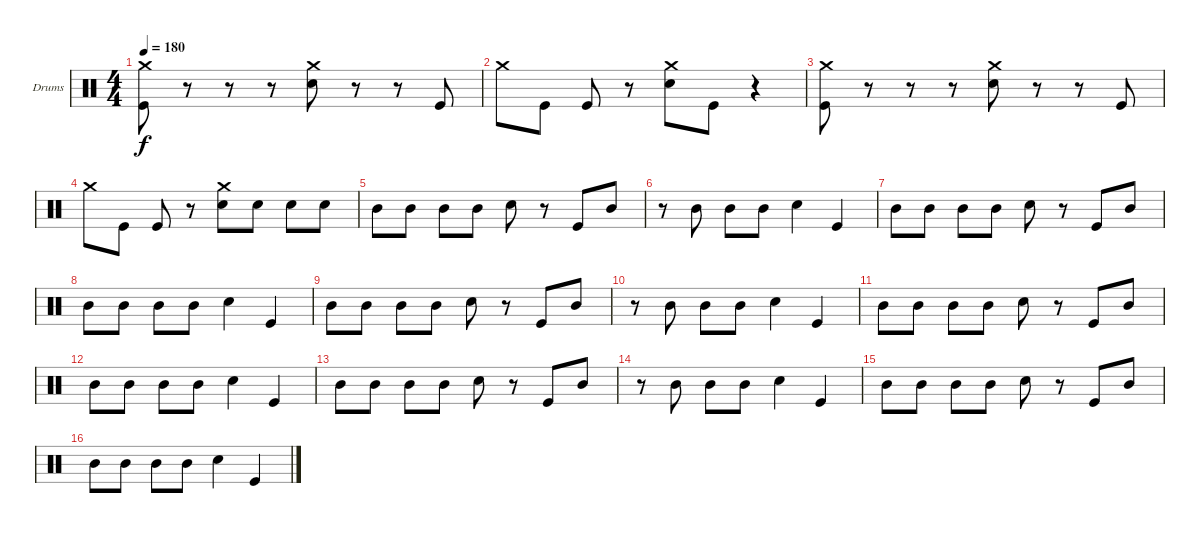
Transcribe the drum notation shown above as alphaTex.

\defaultSystemsLayout 4
\bracketExtendMode groupsimilarinstruments
\firstSystemTrackNameOrientation horizontal
\otherSystemsTrackNameOrientation horizontal
\track ("Drumkit" "Drums") {instrument percussion}
\staff {score}
\articulation defaults
\ts (4 4)
\tempo 180
\clef neutral
\ks c
("Crash medium (hit)" "Kick (hit)").8{dy f} r.8 r.8 r.8 ("Crash medium (hit)" "Snare (hit) 2").8 r.8 r.8 "Kick (hit)".8 |
"Crash medium (hit)".8 "Kick (hit)".8 "Kick (hit)".8 r.8 ("Crash medium (hit)" "Snare (hit) 2").8 "Kick (hit)".8 r.4 |
("Crash medium (hit)" "Kick (hit)").8 r.8 r.8 r.8 ("Crash medium (hit)" "Snare (hit) 2").8 r.8 r.8 "Kick (hit)".8 |
"Crash medium (hit)".8 "Kick (hit)".8 "Kick (hit)".8 r.8 ("Crash medium (hit)" "Snare (hit) 2").8 "Snare (hit) 2".8 "Snare (hit) 2".8 "Snare (hit) 2".8 |
"Mid Tom (hit)".8 "Mid Tom (hit)".8 "Mid Tom (hit)".8 "Mid Tom (hit)".8 "Snare (hit) 2".8 r.8 "Kick (hit)".8 "Mid Tom (hit)".8 |
r.8 "Mid Tom (hit)".8 "Mid Tom (hit)".8 "Mid Tom (hit)".8 "Snare (hit) 2".4 "Kick (hit)".4 |
"Mid Tom (hit)".8 "Mid Tom (hit)".8 "Mid Tom (hit)".8 "Mid Tom (hit)".8 "Snare (hit) 2".8 r.8 "Kick (hit)".8 "Mid Tom (hit)".8 |
"Mid Tom (hit)".8 "Mid Tom (hit)".8 "Mid Tom (hit)".8 "Mid Tom (hit)".8 "Snare (hit) 2".4 "Kick (hit)".4 |
"Mid Tom (hit)".8 "Mid Tom (hit)".8 "Mid Tom (hit)".8 "Mid Tom (hit)".8 "Snare (hit) 2".8 r.8 "Kick (hit)".8 "Mid Tom (hit)".8 |
r.8 "Mid Tom (hit)".8 "Mid Tom (hit)".8 "Mid Tom (hit)".8 "Snare (hit) 2".4 "Kick (hit)".4 |
"Mid Tom (hit)".8 "Mid Tom (hit)".8 "Mid Tom (hit)".8 "Mid Tom (hit)".8 "Snare (hit) 2".8 r.8 "Kick (hit)".8 "Mid Tom (hit)".8 |
"Mid Tom (hit)".8 "Mid Tom (hit)".8 "Mid Tom (hit)".8 "Mid Tom (hit)".8 "Snare (hit) 2".4 "Kick (hit)".4 |
"Mid Tom (hit)".8 "Mid Tom (hit)".8 "Mid Tom (hit)".8 "Mid Tom (hit)".8 "Snare (hit) 2".8 r.8 "Kick (hit)".8 "Mid Tom (hit)".8 |
r.8 "Mid Tom (hit)".8 "Mid Tom (hit)".8 "Mid Tom (hit)".8 "Snare (hit) 2".4 "Kick (hit)".4 |
"Mid Tom (hit)".8 "Mid Tom (hit)".8 "Mid Tom (hit)".8 "Mid Tom (hit)".8 "Snare (hit) 2".8 r.8 "Kick (hit)".8 "Mid Tom (hit)".8 |
"Mid Tom (hit)".8 "Mid Tom (hit)".8 "Mid Tom (hit)".8 "Mid Tom (hit)".8 "Snare (hit) 2".4 "Kick (hit)".4
